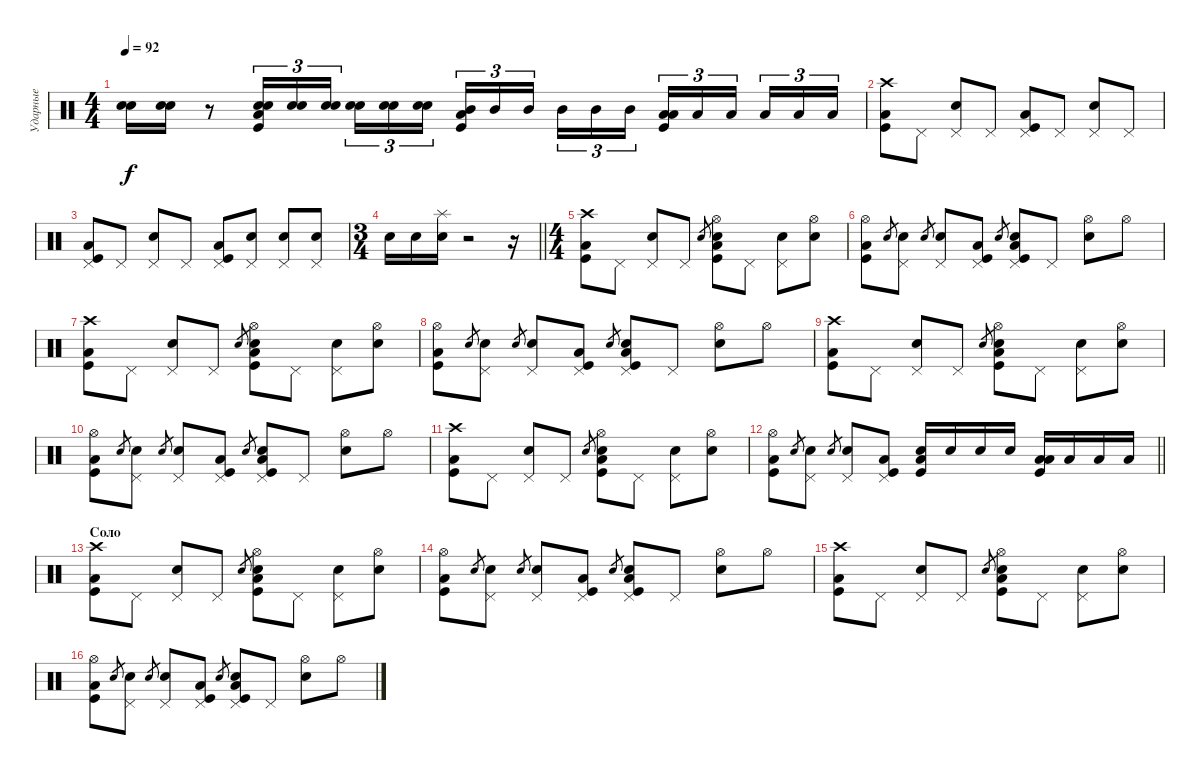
\track ("Ударные" "Ударные") {instrument percussion}
\staff {score}
\articulation defaults
\ts (4 4)
\tempo 92
\clef neutral
\ks c
("Electric Snare (hit)" "Snare (hit) 2").16{dy f} ("Electric Snare (hit)" "Snare (hit) 2").16 r.8 ("Snare (hit) 2" "Electric Snare (hit)" "Low Tom (hit)" "Kick (hit)").16{tu (3 2)} ("Snare (hit) 2" "Electric Snare (hit)").16{tu (3 2)} ("Snare (hit) 2" "Electric Snare (hit)").16{tu (3 2) beam splitsecondary} ("Snare (hit) 2" "Electric Snare (hit)").16{tu (3 2)} ("Snare (hit) 2" "Electric Snare (hit)").16{tu (3 2)} ("Snare (hit) 2" "Electric Snare (hit)").16{tu (3 2)} ("Mid Tom (hit)" "Low Tom (hit)" "Kick (hit)").16{tu (3 2)} "Mid Tom (hit)".16{tu (3 2)} "Mid Tom (hit)".16{tu (3 2) beam splitsecondary} "Mid Tom (hit)".16{tu (3 2)} "Mid Tom (hit)".16{tu (3 2)} "Mid Tom (hit)".16{tu (3 2)} ("Low Tom (hit)" "Low Tom (hit)" "Kick (hit)").16{tu (3 2)} "Low Tom (hit)".16{tu (3 2)} "Low Tom (hit)".16{tu (3 2) beam splitsecondary} "Low Tom (hit)".16{tu (3 2)} "Low Tom (hit)".16{tu (3 2)} "Low Tom (hit)".16{tu (3 2)} |
("Crash high (hit)" "Low Tom (hit)" "Kick (hit)").8 "Pedal Hi-Hat (hit)".8 ("Pedal Hi-Hat (hit)" "Electric Snare (hit)").8 "Pedal Hi-Hat (hit)".8 ("Pedal Hi-Hat (hit)" "Low Tom (hit)" "Kick (hit)").8 "Pedal Hi-Hat (hit)".8 ("Pedal Hi-Hat (hit)" "Electric Snare (hit)").8 "Pedal Hi-Hat (hit)".8 |
("Pedal Hi-Hat (hit)" "Low Tom (hit)" "Kick (hit)").8 "Pedal Hi-Hat (hit)".8 ("Pedal Hi-Hat (hit)" "Electric Snare (hit)").8 "Pedal Hi-Hat (hit)".8 ("Pedal Hi-Hat (hit)" "Low Tom (hit)" "Kick (hit)").8 ("Pedal Hi-Hat (hit)" "Electric Snare (hit)").8 ("Pedal Hi-Hat (hit)" "Electric Snare (hit)").8 ("Pedal Hi-Hat (hit)" "Electric Snare (hit)").8 |
\ts (3 4)
\barLineRight lightlight "Snare (hit) 2".16 "Snare (hit) 2".16
("Splash (hit)" "Electric Snare (hit)").16 r.2 r.16 |
\ts (4 4)
("Crash high (hit)" "Low Tom (hit)" "Kick (hit)").8 "Pedal Hi-Hat (hit)".8 ("Pedal Hi-Hat (hit)" "Electric Snare (hit)").8 "Pedal Hi-Hat (hit)".8 "Snare (hit) 2".8{gr} ("Hi-Hat (open)" "Electric Snare (hit)" "Low Tom (hit)" "Kick (hit)").8 "Pedal Hi-Hat (hit)".8 ("Pedal Hi-Hat (hit)" "Electric Snare (hit)").8 ("Hi-Hat (open)" "Electric Snare (hit)").8 |
("Hi-Hat (open)" "Low Tom (hit)" "Kick (hit)").8 "Snare (hit) 2".8{gr} ("Pedal Hi-Hat (hit)" "Electric Snare (hit)").8 "Snare (hit) 2".8{gr} ("Pedal Hi-Hat (hit)" "Electric Snare (hit)").8 ("Pedal Hi-Hat (hit)" "Low Tom (hit)" "Kick (hit)").8 "Snare (hit) 2".8{gr} ("Pedal Hi-Hat (hit)" "Snare (hit) 2" "Low Tom (hit)" "Kick (hit)").8 "Pedal Hi-Hat (hit)".8 ("Hi-Hat (open)" "Electric Snare (hit)").8 "Hi-Hat (open)".8 |
("Crash high (hit)" "Low Tom (hit)" "Kick (hit)").8 "Pedal Hi-Hat (hit)".8 ("Pedal Hi-Hat (hit)" "Electric Snare (hit)").8 "Pedal Hi-Hat (hit)".8 "Snare (hit) 2".8{gr} ("Hi-Hat (open)" "Electric Snare (hit)" "Low Tom (hit)" "Kick (hit)").8 "Pedal Hi-Hat (hit)".8 ("Pedal Hi-Hat (hit)" "Electric Snare (hit)").8 ("Hi-Hat (open)" "Electric Snare (hit)").8 |
("Hi-Hat (open)" "Low Tom (hit)" "Kick (hit)").8 "Snare (hit) 2".8{gr} ("Pedal Hi-Hat (hit)" "Electric Snare (hit)").8 "Snare (hit) 2".8{gr} ("Pedal Hi-Hat (hit)" "Electric Snare (hit)").8 ("Pedal Hi-Hat (hit)" "Low Tom (hit)" "Kick (hit)").8 "Snare (hit) 2".8{gr} ("Pedal Hi-Hat (hit)" "Snare (hit) 2" "Low Tom (hit)" "Kick (hit)").8 "Pedal Hi-Hat (hit)".8 ("Hi-Hat (open)" "Electric Snare (hit)").8 "Hi-Hat (open)".8 |
("Crash high (hit)" "Low Tom (hit)" "Kick (hit)").8 "Pedal Hi-Hat (hit)".8 ("Pedal Hi-Hat (hit)" "Electric Snare (hit)").8 "Pedal Hi-Hat (hit)".8 "Snare (hit) 2".8{gr} ("Hi-Hat (open)" "Electric Snare (hit)" "Low Tom (hit)" "Kick (hit)").8 "Pedal Hi-Hat (hit)".8 ("Pedal Hi-Hat (hit)" "Electric Snare (hit)").8 ("Hi-Hat (open)" "Electric Snare (hit)").8 |
("Hi-Hat (open)" "Low Tom (hit)" "Kick (hit)").8 "Snare (hit) 2".8{gr} ("Pedal Hi-Hat (hit)" "Electric Snare (hit)").8 "Snare (hit) 2".8{gr} ("Pedal Hi-Hat (hit)" "Electric Snare (hit)").8 ("Pedal Hi-Hat (hit)" "Low Tom (hit)" "Kick (hit)").8 "Snare (hit) 2".8{gr} ("Pedal Hi-Hat (hit)" "Snare (hit) 2" "Low Tom (hit)" "Kick (hit)").8 "Pedal Hi-Hat (hit)".8 ("Hi-Hat (open)" "Electric Snare (hit)").8 "Hi-Hat (open)".8 |
("Crash high (hit)" "Low Tom (hit)" "Kick (hit)").8 "Pedal Hi-Hat (hit)".8 ("Pedal Hi-Hat (hit)" "Electric Snare (hit)").8 "Pedal Hi-Hat (hit)".8 "Snare (hit) 2".8{gr} ("Hi-Hat (open)" "Electric Snare (hit)" "Low Tom (hit)" "Kick (hit)").8 "Pedal Hi-Hat (hit)".8 ("Pedal Hi-Hat (hit)" "Electric Snare (hit)").8 ("Hi-Hat (open)" "Electric Snare (hit)").8 |
\barLineRight lightlight
("Hi-Hat (open)" "Low Tom (hit)" "Kick (hit)").8 "Snare (hit) 2".8{gr} ("Pedal Hi-Hat (hit)" "Electric Snare (hit)").8 "Snare (hit) 2".8{gr} ("Pedal Hi-Hat (hit)" "Electric Snare (hit)").8 ("Pedal Hi-Hat (hit)" "Low Tom (hit)" "Kick (hit)").8 ("Electric Snare (hit)" "Low Tom (hit)" "Kick (hit)").16 "Electric Snare (hit)".16 "Electric Snare (hit)".16 "Electric Snare (hit)".16 ("Low Tom (hit)" "Low Tom (hit)" "Kick (hit)").16 "Low Tom (hit)".16 "Low Tom (hit)".16 "Low Tom (hit)".16 |
\section ("" "Соло")
("Crash high (hit)" "Low Tom (hit)" "Kick (hit)").8 "Pedal Hi-Hat (hit)".8 ("Pedal Hi-Hat (hit)" "Electric Snare (hit)").8 "Pedal Hi-Hat (hit)".8 "Snare (hit) 2".8{gr} ("Hi-Hat (open)" "Electric Snare (hit)" "Low Tom (hit)" "Kick (hit)").8 "Pedal Hi-Hat (hit)".8 ("Pedal Hi-Hat (hit)" "Electric Snare (hit)").8 ("Hi-Hat (open)" "Electric Snare (hit)").8 |
("Hi-Hat (open)" "Low Tom (hit)" "Kick (hit)").8 "Snare (hit) 2".8{gr} ("Pedal Hi-Hat (hit)" "Electric Snare (hit)").8 "Snare (hit) 2".8{gr} ("Pedal Hi-Hat (hit)" "Electric Snare (hit)").8 ("Pedal Hi-Hat (hit)" "Low Tom (hit)" "Kick (hit)").8 "Snare (hit) 2".8{gr} ("Pedal Hi-Hat (hit)" "Snare (hit) 2" "Low Tom (hit)" "Kick (hit)").8 "Pedal Hi-Hat (hit)".8 ("Hi-Hat (open)" "Electric Snare (hit)").8 "Hi-Hat (open)".8 |
("Crash high (hit)" "Low Tom (hit)" "Kick (hit)").8 "Pedal Hi-Hat (hit)".8 ("Pedal Hi-Hat (hit)" "Electric Snare (hit)").8 "Pedal Hi-Hat (hit)".8 "Snare (hit) 2".8{gr} ("Hi-Hat (open)" "Electric Snare (hit)" "Low Tom (hit)" "Kick (hit)").8 "Pedal Hi-Hat (hit)".8 ("Pedal Hi-Hat (hit)" "Electric Snare (hit)").8 ("Hi-Hat (open)" "Electric Snare (hit)").8 |
("Hi-Hat (open)" "Low Tom (hit)" "Kick (hit)").8 "Snare (hit) 2".8{gr} ("Pedal Hi-Hat (hit)" "Electric Snare (hit)").8 "Snare (hit) 2".8{gr} ("Pedal Hi-Hat (hit)" "Electric Snare (hit)").8 ("Pedal Hi-Hat (hit)" "Low Tom (hit)" "Kick (hit)").8 "Snare (hit) 2".8{gr} ("Pedal Hi-Hat (hit)" "Snare (hit) 2" "Low Tom (hit)" "Kick (hit)").8 "Pedal Hi-Hat (hit)".8 ("Hi-Hat (open)" "Electric Snare (hit)").8 "Hi-Hat (open)".8
